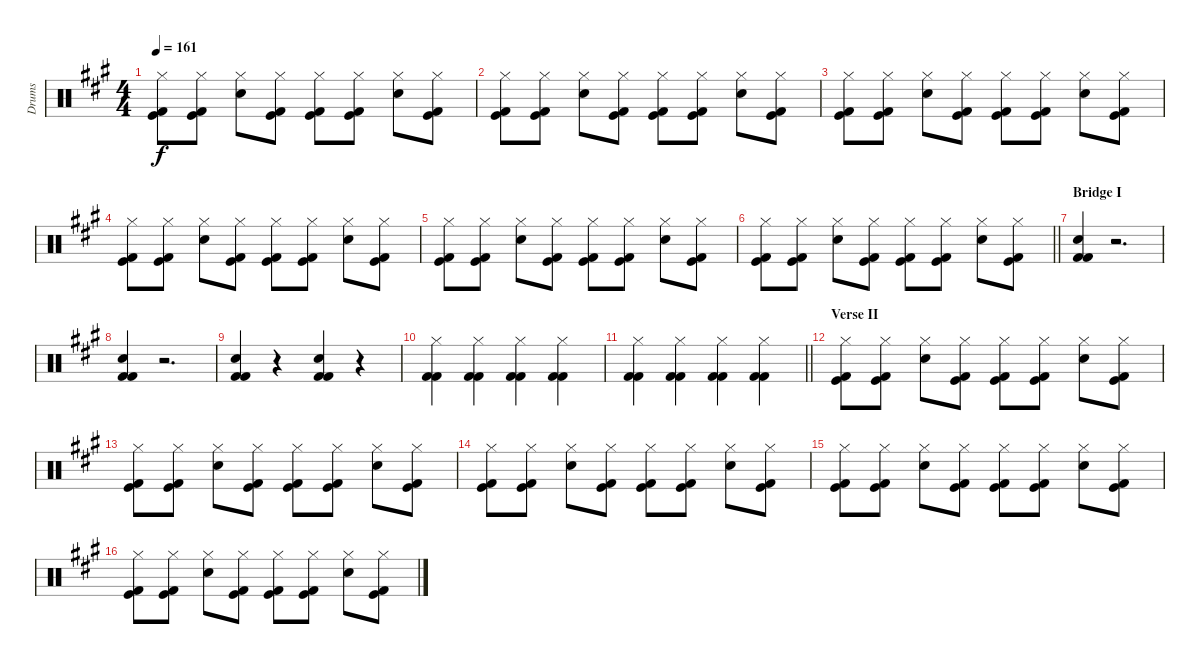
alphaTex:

\track ("Drums" "Drums") {instrument percussion}
\staff {score}
\articulation defaults
\ts (4 4)
\tempo 161
\clef neutral
\ks a
("Hi-Hat (closed)" "Kick (hit)" "Kick (hit) 2").8{dy f} ("Hi-Hat (closed)" "Kick (hit)" "Kick (hit) 2").8 ("Hi-Hat (closed)" "Snare (hit) 2").8 ("Hi-Hat (closed)" "Kick (hit)" "Kick (hit) 2").8 ("Hi-Hat (closed)" "Kick (hit)" "Kick (hit) 2").8 ("Hi-Hat (closed)" "Kick (hit)" "Kick (hit) 2").8 ("Hi-Hat (closed)" "Snare (hit) 2").8 ("Hi-Hat (closed)" "Kick (hit)" "Kick (hit) 2").8 |
("Hi-Hat (closed)" "Kick (hit)" "Kick (hit) 2").8 ("Hi-Hat (closed)" "Kick (hit)" "Kick (hit) 2").8 ("Hi-Hat (closed)" "Snare (hit) 2").8 ("Hi-Hat (closed)" "Kick (hit)" "Kick (hit) 2").8 ("Hi-Hat (closed)" "Kick (hit)" "Kick (hit) 2").8 ("Hi-Hat (closed)" "Kick (hit)" "Kick (hit) 2").8 ("Hi-Hat (closed)" "Snare (hit) 2").8 ("Hi-Hat (closed)" "Kick (hit)" "Kick (hit) 2").8 |
("Hi-Hat (closed)" "Kick (hit)" "Kick (hit) 2").8 ("Hi-Hat (closed)" "Kick (hit)" "Kick (hit) 2").8 ("Hi-Hat (closed)" "Snare (hit) 2").8 ("Hi-Hat (closed)" "Kick (hit)" "Kick (hit) 2").8 ("Hi-Hat (closed)" "Kick (hit)" "Kick (hit) 2").8 ("Hi-Hat (closed)" "Kick (hit)" "Kick (hit) 2").8 ("Hi-Hat (closed)" "Snare (hit) 2").8 ("Hi-Hat (closed)" "Kick (hit)" "Kick (hit) 2").8 |
("Hi-Hat (closed)" "Kick (hit)" "Kick (hit) 2").8 ("Hi-Hat (closed)" "Kick (hit)" "Kick (hit) 2").8 ("Hi-Hat (closed)" "Snare (hit) 2").8 ("Hi-Hat (closed)" "Kick (hit)" "Kick (hit) 2").8 ("Hi-Hat (closed)" "Kick (hit)" "Kick (hit) 2").8 ("Hi-Hat (closed)" "Kick (hit)" "Kick (hit) 2").8 ("Hi-Hat (closed)" "Snare (hit) 2").8 ("Hi-Hat (closed)" "Kick (hit)" "Kick (hit) 2").8 |
("Hi-Hat (closed)" "Kick (hit)" "Kick (hit) 2").8 ("Hi-Hat (closed)" "Kick (hit)" "Kick (hit) 2").8 ("Hi-Hat (closed)" "Snare (hit) 2").8 ("Hi-Hat (closed)" "Kick (hit)" "Kick (hit) 2").8 ("Hi-Hat (closed)" "Kick (hit)" "Kick (hit) 2").8 ("Hi-Hat (closed)" "Kick (hit)" "Kick (hit) 2").8 ("Hi-Hat (closed)" "Snare (hit) 2").8 ("Hi-Hat (closed)" "Kick (hit)" "Kick (hit) 2").8 |
\barLineRight lightlight
("Hi-Hat (closed)" "Kick (hit)" "Kick (hit) 2").8 ("Hi-Hat (closed)" "Kick (hit)" "Kick (hit) 2").8 ("Hi-Hat (closed)" "Snare (hit) 2").8 ("Hi-Hat (closed)" "Kick (hit)" "Kick (hit) 2").8 ("Hi-Hat (closed)" "Kick (hit)" "Kick (hit) 2").8 ("Hi-Hat (closed)" "Kick (hit)" "Kick (hit) 2").8 ("Hi-Hat (closed)" "Snare (hit) 2").8 ("Hi-Hat (closed)" "Kick (hit)" "Kick (hit) 2").8 |
\section ("" "Bridge I")
("Snare (hit) 2" "Kick (hit) 2" "Kick (hit) 2").4 r.2{d} |
("Snare (hit) 2" "Kick (hit) 2" "Kick (hit) 2").4 r.2{d} |
("Snare (hit) 2" "Kick (hit) 2" "Kick (hit) 2").4 r.4 ("Snare (hit) 2" "Kick (hit) 2" "Kick (hit) 2").4 r.4 |
("Hi-Hat (closed)" "Kick (hit) 2" "Kick (hit) 2").4 ("Hi-Hat (closed)" "Kick (hit) 2" "Kick (hit) 2").4 ("Hi-Hat (closed)" "Kick (hit) 2" "Kick (hit) 2").4 ("Hi-Hat (closed)" "Kick (hit) 2" "Kick (hit) 2").4 |
\barLineRight lightlight
("Hi-Hat (closed)" "Kick (hit) 2" "Kick (hit) 2").4 ("Hi-Hat (closed)" "Kick (hit) 2" "Kick (hit) 2").4 ("Hi-Hat (closed)" "Kick (hit) 2" "Kick (hit) 2").4 ("Hi-Hat (closed)" "Kick (hit) 2" "Kick (hit) 2").4 |
\section ("" "Verse II")
("Hi-Hat (closed)" "Kick (hit)" "Kick (hit) 2").8 ("Hi-Hat (closed)" "Kick (hit)" "Kick (hit) 2").8 ("Hi-Hat (closed)" "Snare (hit) 2").8 ("Hi-Hat (closed)" "Kick (hit)" "Kick (hit) 2").8 ("Hi-Hat (closed)" "Kick (hit)" "Kick (hit) 2").8 ("Hi-Hat (closed)" "Kick (hit)" "Kick (hit) 2").8 ("Hi-Hat (closed)" "Snare (hit) 2").8 ("Hi-Hat (closed)" "Kick (hit)" "Kick (hit) 2").8 |
("Hi-Hat (closed)" "Kick (hit)" "Kick (hit) 2").8 ("Hi-Hat (closed)" "Kick (hit)" "Kick (hit) 2").8 ("Hi-Hat (closed)" "Snare (hit) 2").8 ("Hi-Hat (closed)" "Kick (hit)" "Kick (hit) 2").8 ("Hi-Hat (closed)" "Kick (hit)" "Kick (hit) 2").8 ("Hi-Hat (closed)" "Kick (hit)" "Kick (hit) 2").8 ("Hi-Hat (closed)" "Snare (hit) 2").8 ("Hi-Hat (closed)" "Kick (hit)" "Kick (hit) 2").8 |
("Hi-Hat (closed)" "Kick (hit)" "Kick (hit) 2").8 ("Hi-Hat (closed)" "Kick (hit)" "Kick (hit) 2").8 ("Hi-Hat (closed)" "Snare (hit) 2").8 ("Hi-Hat (closed)" "Kick (hit)" "Kick (hit) 2").8 ("Hi-Hat (closed)" "Kick (hit)" "Kick (hit) 2").8 ("Hi-Hat (closed)" "Kick (hit)" "Kick (hit) 2").8 ("Hi-Hat (closed)" "Snare (hit) 2").8 ("Hi-Hat (closed)" "Kick (hit)" "Kick (hit) 2").8 |
("Hi-Hat (closed)" "Kick (hit)" "Kick (hit) 2").8 ("Hi-Hat (closed)" "Kick (hit)" "Kick (hit) 2").8 ("Hi-Hat (closed)" "Snare (hit) 2").8 ("Hi-Hat (closed)" "Kick (hit)" "Kick (hit) 2").8 ("Hi-Hat (closed)" "Kick (hit)" "Kick (hit) 2").8 ("Hi-Hat (closed)" "Kick (hit)" "Kick (hit) 2").8 ("Hi-Hat (closed)" "Snare (hit) 2").8 ("Hi-Hat (closed)" "Kick (hit)" "Kick (hit) 2").8 |
("Hi-Hat (closed)" "Kick (hit)" "Kick (hit) 2").8 ("Hi-Hat (closed)" "Kick (hit)" "Kick (hit) 2").8 ("Hi-Hat (closed)" "Snare (hit) 2").8 ("Hi-Hat (closed)" "Kick (hit)" "Kick (hit) 2").8 ("Hi-Hat (closed)" "Kick (hit)" "Kick (hit) 2").8 ("Hi-Hat (closed)" "Kick (hit)" "Kick (hit) 2").8 ("Hi-Hat (closed)" "Snare (hit) 2").8 ("Hi-Hat (closed)" "Kick (hit)" "Kick (hit) 2").8
